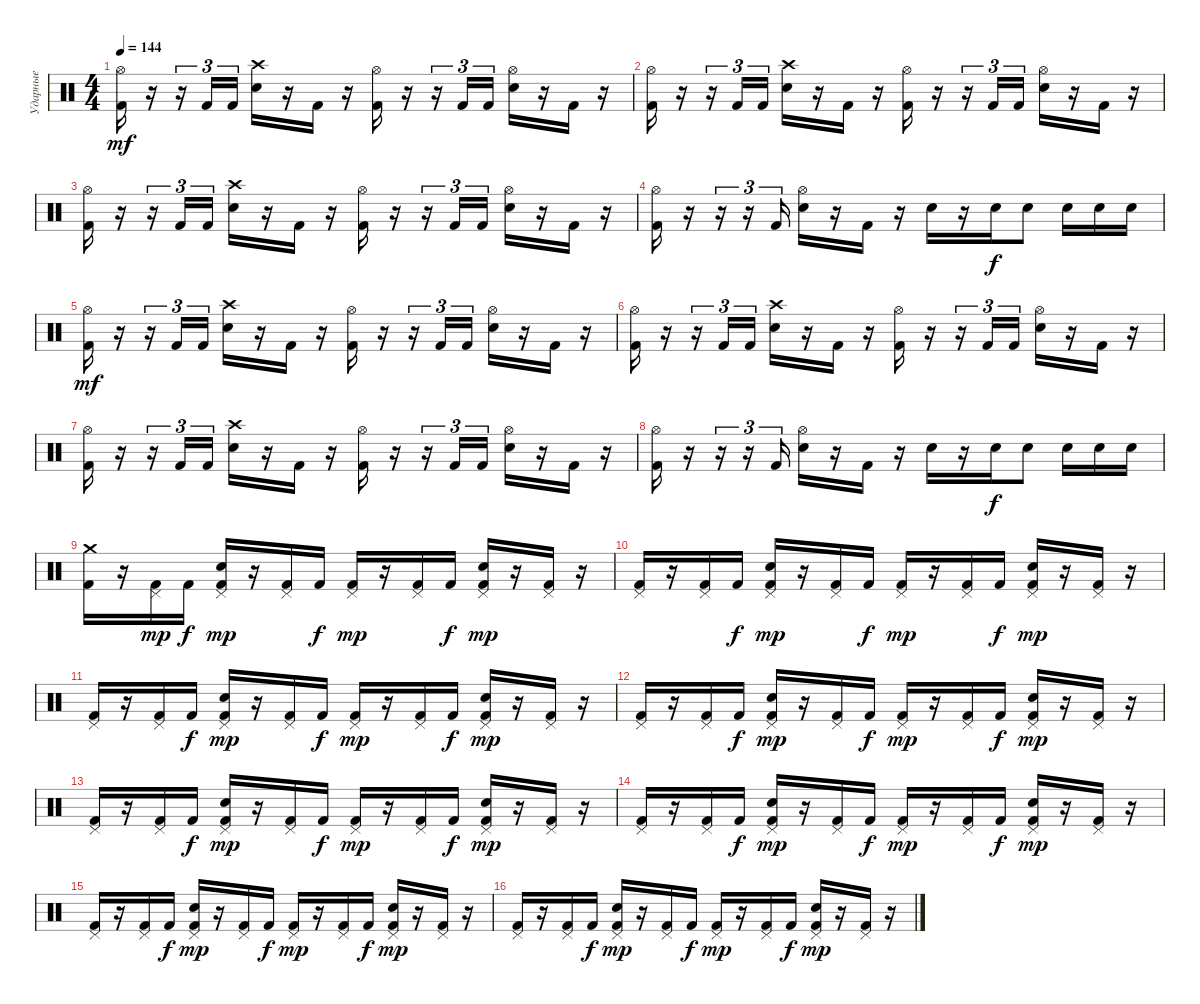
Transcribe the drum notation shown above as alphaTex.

\track ("Ударные" "Ударные") {instrument percussion}
\staff {score}
\articulation defaults
\ts (4 4)
\tempo 144
\clef neutral
\ks c
("Hi-Hat (open)" "Kick (hit) 2").16{dy mf} r.16 r.16{tu (3 2)} "Kick (hit) 2".16{tu (3 2)} "Kick (hit) 2".16{tu (3 2)} ("Crash high (hit)" "Electric Snare (hit)").16 r.16 "Kick (hit) 2".16 r.16 ("Hi-Hat (open)" "Kick (hit) 2").16 r.16 r.16{tu (3 2)} "Kick (hit) 2".16{tu (3 2)} "Kick (hit) 2".16{tu (3 2)} ("Hi-Hat (open)" "Electric Snare (hit)").16 r.16 "Kick (hit) 2".16 r.16 |
("Hi-Hat (open)" "Kick (hit) 2").16 r.16 r.16{tu (3 2)} "Kick (hit) 2".16{tu (3 2)} "Kick (hit) 2".16{tu (3 2)} ("Crash high (hit)" "Electric Snare (hit)").16 r.16 "Kick (hit) 2".16 r.16 ("Hi-Hat (open)" "Kick (hit) 2").16 r.16 r.16{tu (3 2)} "Kick (hit) 2".16{tu (3 2)} "Kick (hit) 2".16{tu (3 2)} ("Hi-Hat (open)" "Electric Snare (hit)").16 r.16 "Kick (hit) 2".16 r.16 |
("Hi-Hat (open)" "Kick (hit) 2").16 r.16 r.16{tu (3 2)} "Kick (hit) 2".16{tu (3 2)} "Kick (hit) 2".16{tu (3 2)} ("Crash high (hit)" "Electric Snare (hit)").16 r.16 "Kick (hit) 2".16 r.16 ("Hi-Hat (open)" "Kick (hit) 2").16 r.16 r.16{tu (3 2)} "Kick (hit) 2".16{tu (3 2)} "Kick (hit) 2".16{tu (3 2)} ("Hi-Hat (open)" "Electric Snare (hit)").16 r.16 "Kick (hit) 2".16 r.16 |
("Hi-Hat (open)" "Kick (hit) 2").16 r.16 r.16{tu (3 2)} r.16{tu (3 2)} "Kick (hit) 2".16{tu (3 2)} ("Hi-Hat (open)" "Electric Snare (hit)").16 r.16 "Kick (hit) 2".16 r.16 "Electric Snare (hit)".16 r.16 "Electric Snare (hit)".16{dy f} "Electric Snare (hit)".8 "Electric Snare (hit)".16 "Electric Snare (hit)".16 "Electric Snare (hit)".16 |
("Hi-Hat (open)" "Kick (hit) 2").16{dy mf} r.16 r.16{tu (3 2)} "Kick (hit) 2".16{tu (3 2)} "Kick (hit) 2".16{tu (3 2)} ("Crash high (hit)" "Electric Snare (hit)").16 r.16 "Kick (hit) 2".16 r.16 ("Hi-Hat (open)" "Kick (hit) 2").16 r.16 r.16{tu (3 2)} "Kick (hit) 2".16{tu (3 2)} "Kick (hit) 2".16{tu (3 2)} ("Hi-Hat (open)" "Electric Snare (hit)").16 r.16 "Kick (hit) 2".16 r.16 |
("Hi-Hat (open)" "Kick (hit) 2").16 r.16 r.16{tu (3 2)} "Kick (hit) 2".16{tu (3 2)} "Kick (hit) 2".16{tu (3 2)} ("Crash high (hit)" "Electric Snare (hit)").16 r.16 "Kick (hit) 2".16 r.16 ("Hi-Hat (open)" "Kick (hit) 2").16 r.16 r.16{tu (3 2)} "Kick (hit) 2".16{tu (3 2)} "Kick (hit) 2".16{tu (3 2)} ("Hi-Hat (open)" "Electric Snare (hit)").16 r.16 "Kick (hit) 2".16 r.16 |
("Hi-Hat (open)" "Kick (hit) 2").16 r.16 r.16{tu (3 2)} "Kick (hit) 2".16{tu (3 2)} "Kick (hit) 2".16{tu (3 2)} ("Crash high (hit)" "Electric Snare (hit)").16 r.16 "Kick (hit) 2".16 r.16 ("Hi-Hat (open)" "Kick (hit) 2").16 r.16 r.16{tu (3 2)} "Kick (hit) 2".16{tu (3 2)} "Kick (hit) 2".16{tu (3 2)} ("Hi-Hat (open)" "Electric Snare (hit)").16 r.16 "Kick (hit) 2".16 r.16 |
("Hi-Hat (open)" "Kick (hit) 2").16 r.16 r.16{tu (3 2)} r.16{tu (3 2)} "Kick (hit) 2".16{tu (3 2)} ("Hi-Hat (open)" "Electric Snare (hit)").16 r.16 "Kick (hit) 2".16 r.16 "Electric Snare (hit)".16 r.16 "Electric Snare (hit)".16{dy f} "Electric Snare (hit)".8 "Electric Snare (hit)".16 "Electric Snare (hit)".16 "Electric Snare (hit)".16 |
("Crash medium (hit)" "Kick (hit) 2").16 r.16 ("Pedal Hi-Hat (hit)" "Kick (hit) 2").16{dy mp} "Kick (hit) 2".16{dy f} ("Pedal Hi-Hat (hit)" "Electric Snare (hit)" "Kick (hit) 2").16{dy mp} r.16 ("Pedal Hi-Hat (hit)" "Kick (hit) 2").16 "Kick (hit) 2".16{dy f} ("Pedal Hi-Hat (hit)" "Kick (hit) 2").16{dy mp} r.16 ("Pedal Hi-Hat (hit)" "Kick (hit) 2").16 "Kick (hit) 2".16{dy f} ("Pedal Hi-Hat (hit)" "Electric Snare (hit)" "Kick (hit) 2").16{dy mp} r.16 ("Pedal Hi-Hat (hit)" "Kick (hit) 2").16 r.16 |
("Pedal Hi-Hat (hit)" "Kick (hit) 2").16 r.16 ("Pedal Hi-Hat (hit)" "Kick (hit) 2").16 "Kick (hit) 2".16{dy f} ("Pedal Hi-Hat (hit)" "Electric Snare (hit)" "Kick (hit) 2").16{dy mp} r.16 ("Pedal Hi-Hat (hit)" "Kick (hit) 2").16 "Kick (hit) 2".16{dy f} ("Pedal Hi-Hat (hit)" "Kick (hit) 2").16{dy mp} r.16 ("Pedal Hi-Hat (hit)" "Kick (hit) 2").16 "Kick (hit) 2".16{dy f} ("Pedal Hi-Hat (hit)" "Electric Snare (hit)" "Kick (hit) 2").16{dy mp} r.16 ("Pedal Hi-Hat (hit)" "Kick (hit) 2").16 r.16 |
("Pedal Hi-Hat (hit)" "Kick (hit) 2").16 r.16 ("Pedal Hi-Hat (hit)" "Kick (hit) 2").16 "Kick (hit) 2".16{dy f} ("Pedal Hi-Hat (hit)" "Electric Snare (hit)" "Kick (hit) 2").16{dy mp} r.16 ("Pedal Hi-Hat (hit)" "Kick (hit) 2").16 "Kick (hit) 2".16{dy f} ("Pedal Hi-Hat (hit)" "Kick (hit) 2").16{dy mp} r.16 ("Pedal Hi-Hat (hit)" "Kick (hit) 2").16 "Kick (hit) 2".16{dy f} ("Pedal Hi-Hat (hit)" "Electric Snare (hit)" "Kick (hit) 2").16{dy mp} r.16 ("Pedal Hi-Hat (hit)" "Kick (hit) 2").16 r.16 |
("Pedal Hi-Hat (hit)" "Kick (hit) 2").16 r.16 ("Pedal Hi-Hat (hit)" "Kick (hit) 2").16 "Kick (hit) 2".16{dy f} ("Pedal Hi-Hat (hit)" "Electric Snare (hit)" "Kick (hit) 2").16{dy mp} r.16 ("Pedal Hi-Hat (hit)" "Kick (hit) 2").16 "Kick (hit) 2".16{dy f} ("Pedal Hi-Hat (hit)" "Kick (hit) 2").16{dy mp} r.16 ("Pedal Hi-Hat (hit)" "Kick (hit) 2").16 "Kick (hit) 2".16{dy f} ("Pedal Hi-Hat (hit)" "Electric Snare (hit)" "Kick (hit) 2").16{dy mp} r.16 ("Pedal Hi-Hat (hit)" "Kick (hit) 2").16 r.16 |
("Pedal Hi-Hat (hit)" "Kick (hit) 2").16 r.16 ("Pedal Hi-Hat (hit)" "Kick (hit) 2").16 "Kick (hit) 2".16{dy f} ("Pedal Hi-Hat (hit)" "Electric Snare (hit)" "Kick (hit) 2").16{dy mp} r.16 ("Pedal Hi-Hat (hit)" "Kick (hit) 2").16 "Kick (hit) 2".16{dy f} ("Pedal Hi-Hat (hit)" "Kick (hit) 2").16{dy mp} r.16 ("Pedal Hi-Hat (hit)" "Kick (hit) 2").16 "Kick (hit) 2".16{dy f} ("Pedal Hi-Hat (hit)" "Electric Snare (hit)" "Kick (hit) 2").16{dy mp} r.16 ("Pedal Hi-Hat (hit)" "Kick (hit) 2").16 r.16 |
("Pedal Hi-Hat (hit)" "Kick (hit) 2").16 r.16 ("Pedal Hi-Hat (hit)" "Kick (hit) 2").16 "Kick (hit) 2".16{dy f} ("Pedal Hi-Hat (hit)" "Electric Snare (hit)" "Kick (hit) 2").16{dy mp} r.16 ("Pedal Hi-Hat (hit)" "Kick (hit) 2").16 "Kick (hit) 2".16{dy f} ("Pedal Hi-Hat (hit)" "Kick (hit) 2").16{dy mp} r.16 ("Pedal Hi-Hat (hit)" "Kick (hit) 2").16 "Kick (hit) 2".16{dy f} ("Pedal Hi-Hat (hit)" "Electric Snare (hit)" "Kick (hit) 2").16{dy mp} r.16 ("Pedal Hi-Hat (hit)" "Kick (hit) 2").16 r.16 |
("Pedal Hi-Hat (hit)" "Kick (hit) 2").16 r.16 ("Pedal Hi-Hat (hit)" "Kick (hit) 2").16 "Kick (hit) 2".16{dy f} ("Pedal Hi-Hat (hit)" "Electric Snare (hit)" "Kick (hit) 2").16{dy mp} r.16 ("Pedal Hi-Hat (hit)" "Kick (hit) 2").16 "Kick (hit) 2".16{dy f} ("Pedal Hi-Hat (hit)" "Kick (hit) 2").16{dy mp} r.16 ("Pedal Hi-Hat (hit)" "Kick (hit) 2").16 "Kick (hit) 2".16{dy f} ("Pedal Hi-Hat (hit)" "Electric Snare (hit)" "Kick (hit) 2").16{dy mp} r.16 ("Pedal Hi-Hat (hit)" "Kick (hit) 2").16 r.16 |
("Pedal Hi-Hat (hit)" "Kick (hit) 2").16 r.16 ("Pedal Hi-Hat (hit)" "Kick (hit) 2").16 "Kick (hit) 2".16{dy f} ("Pedal Hi-Hat (hit)" "Electric Snare (hit)" "Kick (hit) 2").16{dy mp} r.16 ("Pedal Hi-Hat (hit)" "Kick (hit) 2").16 "Kick (hit) 2".16{dy f} ("Pedal Hi-Hat (hit)" "Kick (hit) 2").16{dy mp} r.16 ("Pedal Hi-Hat (hit)" "Kick (hit) 2").16 "Kick (hit) 2".16{dy f} ("Pedal Hi-Hat (hit)" "Electric Snare (hit)" "Kick (hit) 2").16{dy mp} r.16 ("Pedal Hi-Hat (hit)" "Kick (hit) 2").16 r.16
